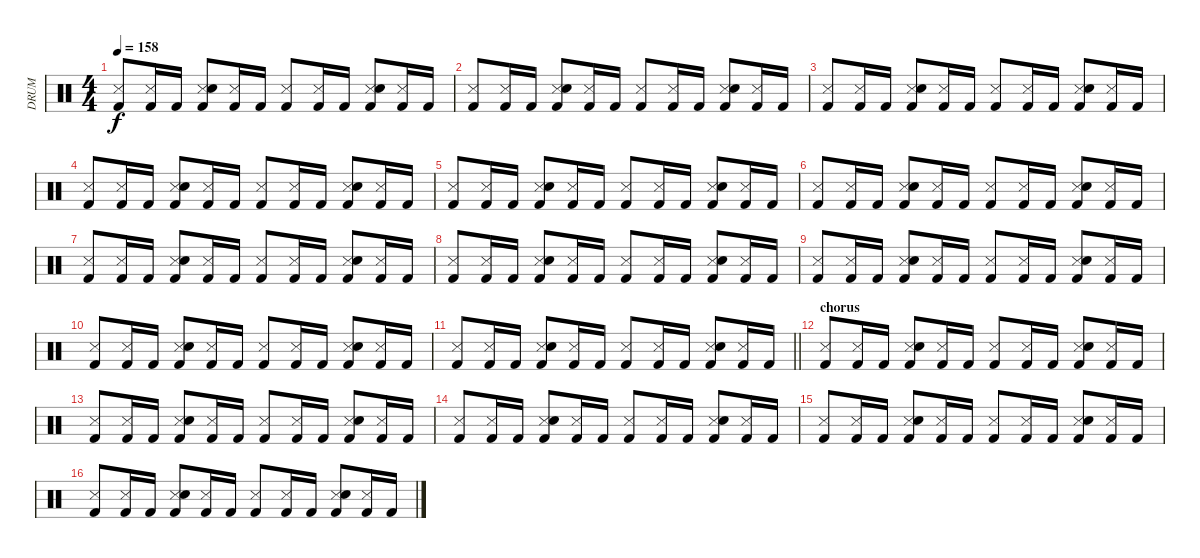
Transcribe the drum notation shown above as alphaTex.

\track ("DRUM" "DRUM") {instrument percussion}
\staff {score}
\articulation defaults
\ts (4 4)
\tempo 158
\clef neutral
\ks c
("Metronome (hit)" "Kick (hit) 2").8{dy f} ("Metronome (hit)" "Kick (hit) 2").16 "Kick (hit) 2".16 ("Metronome (hit)" "Snare (hit) 2" "Kick (hit) 2").8 ("Metronome (hit)" "Kick (hit) 2").16 "Kick (hit) 2".16 ("Metronome (hit)" "Kick (hit) 2").8 ("Metronome (hit)" "Kick (hit) 2").16 "Kick (hit) 2".16 ("Metronome (hit)" "Snare (hit) 2" "Kick (hit) 2").8 ("Metronome (hit)" "Kick (hit) 2").16 "Kick (hit) 2".16 |
("Metronome (hit)" "Kick (hit) 2").8 ("Metronome (hit)" "Kick (hit) 2").16 "Kick (hit) 2".16 ("Metronome (hit)" "Snare (hit) 2" "Kick (hit) 2").8 ("Metronome (hit)" "Kick (hit) 2").16 "Kick (hit) 2".16 ("Metronome (hit)" "Kick (hit) 2").8 ("Metronome (hit)" "Kick (hit) 2").16 "Kick (hit) 2".16 ("Metronome (hit)" "Snare (hit) 2" "Kick (hit) 2").8 ("Metronome (hit)" "Kick (hit) 2").16 "Kick (hit) 2".16 |
("Metronome (hit)" "Kick (hit) 2").8 ("Metronome (hit)" "Kick (hit) 2").16 "Kick (hit) 2".16 ("Metronome (hit)" "Snare (hit) 2" "Kick (hit) 2").8 ("Metronome (hit)" "Kick (hit) 2").16 "Kick (hit) 2".16 ("Metronome (hit)" "Kick (hit) 2").8 ("Metronome (hit)" "Kick (hit) 2").16 "Kick (hit) 2".16 ("Metronome (hit)" "Snare (hit) 2" "Kick (hit) 2").8 ("Metronome (hit)" "Kick (hit) 2").16 "Kick (hit) 2".16 |
("Metronome (hit)" "Kick (hit) 2").8 ("Metronome (hit)" "Kick (hit) 2").16 "Kick (hit) 2".16 ("Metronome (hit)" "Snare (hit) 2" "Kick (hit) 2").8 ("Metronome (hit)" "Kick (hit) 2").16 "Kick (hit) 2".16 ("Metronome (hit)" "Kick (hit) 2").8 ("Metronome (hit)" "Kick (hit) 2").16 "Kick (hit) 2".16 ("Metronome (hit)" "Snare (hit) 2" "Kick (hit) 2").8 ("Metronome (hit)" "Kick (hit) 2").16 "Kick (hit) 2".16 |
("Metronome (hit)" "Kick (hit) 2").8 ("Metronome (hit)" "Kick (hit) 2").16 "Kick (hit) 2".16 ("Metronome (hit)" "Snare (hit) 2" "Kick (hit) 2").8 ("Metronome (hit)" "Kick (hit) 2").16 "Kick (hit) 2".16 ("Metronome (hit)" "Kick (hit) 2").8 ("Metronome (hit)" "Kick (hit) 2").16 "Kick (hit) 2".16 ("Metronome (hit)" "Snare (hit) 2" "Kick (hit) 2").8 ("Metronome (hit)" "Kick (hit) 2").16 "Kick (hit) 2".16 |
("Metronome (hit)" "Kick (hit) 2").8 ("Metronome (hit)" "Kick (hit) 2").16 "Kick (hit) 2".16 ("Metronome (hit)" "Snare (hit) 2" "Kick (hit) 2").8 ("Metronome (hit)" "Kick (hit) 2").16 "Kick (hit) 2".16 ("Metronome (hit)" "Kick (hit) 2").8 ("Metronome (hit)" "Kick (hit) 2").16 "Kick (hit) 2".16 ("Metronome (hit)" "Snare (hit) 2" "Kick (hit) 2").8 ("Metronome (hit)" "Kick (hit) 2").16 "Kick (hit) 2".16 |
("Metronome (hit)" "Kick (hit) 2").8 ("Metronome (hit)" "Kick (hit) 2").16 "Kick (hit) 2".16 ("Metronome (hit)" "Snare (hit) 2" "Kick (hit) 2").8 ("Metronome (hit)" "Kick (hit) 2").16 "Kick (hit) 2".16 ("Metronome (hit)" "Kick (hit) 2").8 ("Metronome (hit)" "Kick (hit) 2").16 "Kick (hit) 2".16 ("Metronome (hit)" "Snare (hit) 2" "Kick (hit) 2").8 ("Metronome (hit)" "Kick (hit) 2").16 "Kick (hit) 2".16 |
("Metronome (hit)" "Kick (hit) 2").8 ("Metronome (hit)" "Kick (hit) 2").16 "Kick (hit) 2".16 ("Metronome (hit)" "Snare (hit) 2" "Kick (hit) 2").8 ("Metronome (hit)" "Kick (hit) 2").16 "Kick (hit) 2".16 ("Metronome (hit)" "Kick (hit) 2").8 ("Metronome (hit)" "Kick (hit) 2").16 "Kick (hit) 2".16 ("Metronome (hit)" "Snare (hit) 2" "Kick (hit) 2").8 ("Metronome (hit)" "Kick (hit) 2").16 "Kick (hit) 2".16 |
("Metronome (hit)" "Kick (hit) 2").8 ("Metronome (hit)" "Kick (hit) 2").16 "Kick (hit) 2".16 ("Metronome (hit)" "Snare (hit) 2" "Kick (hit) 2").8 ("Metronome (hit)" "Kick (hit) 2").16 "Kick (hit) 2".16 ("Metronome (hit)" "Kick (hit) 2").8 ("Metronome (hit)" "Kick (hit) 2").16 "Kick (hit) 2".16 ("Metronome (hit)" "Snare (hit) 2" "Kick (hit) 2").8 ("Metronome (hit)" "Kick (hit) 2").16 "Kick (hit) 2".16 |
("Metronome (hit)" "Kick (hit) 2").8 ("Metronome (hit)" "Kick (hit) 2").16 "Kick (hit) 2".16 ("Metronome (hit)" "Snare (hit) 2" "Kick (hit) 2").8 ("Metronome (hit)" "Kick (hit) 2").16 "Kick (hit) 2".16 ("Metronome (hit)" "Kick (hit) 2").8 ("Metronome (hit)" "Kick (hit) 2").16 "Kick (hit) 2".16 ("Metronome (hit)" "Snare (hit) 2" "Kick (hit) 2").8 ("Metronome (hit)" "Kick (hit) 2").16 "Kick (hit) 2".16 |
\barLineRight lightlight
("Metronome (hit)" "Kick (hit) 2").8 ("Metronome (hit)" "Kick (hit) 2").16 "Kick (hit) 2".16 ("Metronome (hit)" "Snare (hit) 2" "Kick (hit) 2").8 ("Metronome (hit)" "Kick (hit) 2").16 "Kick (hit) 2".16 ("Metronome (hit)" "Kick (hit) 2").8 ("Metronome (hit)" "Kick (hit) 2").16 "Kick (hit) 2".16 ("Metronome (hit)" "Snare (hit) 2" "Kick (hit) 2").8 ("Metronome (hit)" "Kick (hit) 2").16 "Kick (hit) 2".16 |
\section ("" "chorus")
("Metronome (hit)" "Kick (hit) 2").8 ("Metronome (hit)" "Kick (hit) 2").16 "Kick (hit) 2".16 ("Metronome (hit)" "Snare (hit) 2" "Kick (hit) 2").8 ("Metronome (hit)" "Kick (hit) 2").16 "Kick (hit) 2".16 ("Metronome (hit)" "Kick (hit) 2").8 ("Metronome (hit)" "Kick (hit) 2").16 "Kick (hit) 2".16 ("Metronome (hit)" "Snare (hit) 2" "Kick (hit) 2").8 ("Metronome (hit)" "Kick (hit) 2").16 "Kick (hit) 2".16 |
("Metronome (hit)" "Kick (hit) 2").8 ("Metronome (hit)" "Kick (hit) 2").16 "Kick (hit) 2".16 ("Metronome (hit)" "Snare (hit) 2" "Kick (hit) 2").8 ("Metronome (hit)" "Kick (hit) 2").16 "Kick (hit) 2".16 ("Metronome (hit)" "Kick (hit) 2").8 ("Metronome (hit)" "Kick (hit) 2").16 "Kick (hit) 2".16 ("Metronome (hit)" "Snare (hit) 2" "Kick (hit) 2").8 ("Metronome (hit)" "Kick (hit) 2").16 "Kick (hit) 2".16 |
("Metronome (hit)" "Kick (hit) 2").8 ("Metronome (hit)" "Kick (hit) 2").16 "Kick (hit) 2".16 ("Metronome (hit)" "Snare (hit) 2" "Kick (hit) 2").8 ("Metronome (hit)" "Kick (hit) 2").16 "Kick (hit) 2".16 ("Metronome (hit)" "Kick (hit) 2").8 ("Metronome (hit)" "Kick (hit) 2").16 "Kick (hit) 2".16 ("Metronome (hit)" "Snare (hit) 2" "Kick (hit) 2").8 ("Metronome (hit)" "Kick (hit) 2").16 "Kick (hit) 2".16 |
("Metronome (hit)" "Kick (hit) 2").8 ("Metronome (hit)" "Kick (hit) 2").16 "Kick (hit) 2".16 ("Metronome (hit)" "Snare (hit) 2" "Kick (hit) 2").8 ("Metronome (hit)" "Kick (hit) 2").16 "Kick (hit) 2".16 ("Metronome (hit)" "Kick (hit) 2").8 ("Metronome (hit)" "Kick (hit) 2").16 "Kick (hit) 2".16 ("Metronome (hit)" "Snare (hit) 2" "Kick (hit) 2").8 ("Metronome (hit)" "Kick (hit) 2").16 "Kick (hit) 2".16 |
("Metronome (hit)" "Kick (hit) 2").8 ("Metronome (hit)" "Kick (hit) 2").16 "Kick (hit) 2".16 ("Metronome (hit)" "Snare (hit) 2" "Kick (hit) 2").8 ("Metronome (hit)" "Kick (hit) 2").16 "Kick (hit) 2".16 ("Metronome (hit)" "Kick (hit) 2").8 ("Metronome (hit)" "Kick (hit) 2").16 "Kick (hit) 2".16 ("Metronome (hit)" "Snare (hit) 2" "Kick (hit) 2").8 ("Metronome (hit)" "Kick (hit) 2").16 "Kick (hit) 2".16
